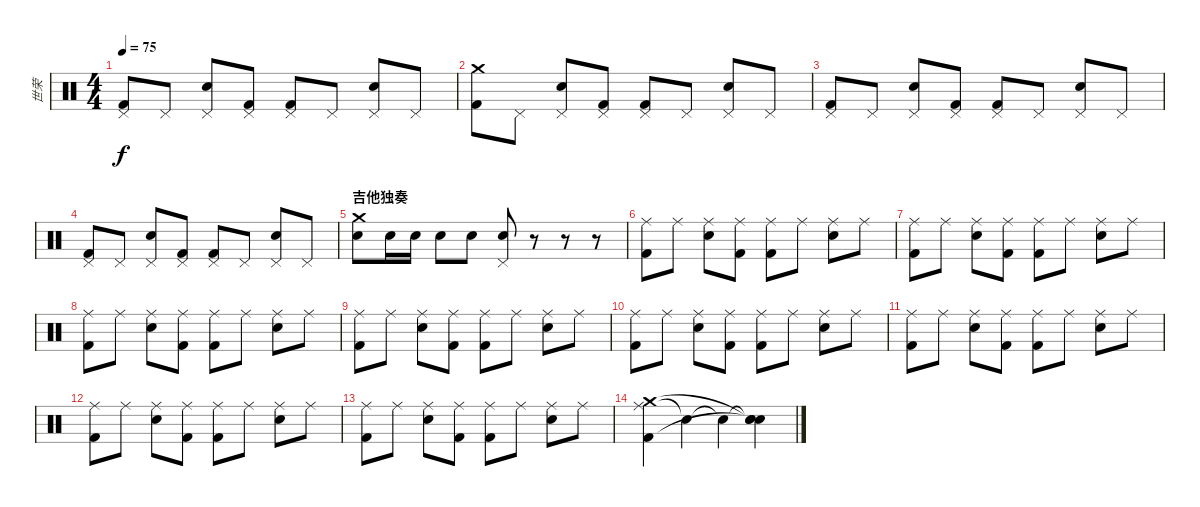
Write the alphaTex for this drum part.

\track ("世荣" "世荣") {instrument percussion}
\staff {score}
\articulation defaults
\ts (4 4)
\tempo 75
\clef neutral
\ks c
("Pedal Hi-Hat (hit)" "Kick (hit) 2").8{dy f} "Pedal Hi-Hat (hit)".8 ("Pedal Hi-Hat (hit)" "Electric Snare (hit)").8 ("Pedal Hi-Hat (hit)" "Kick (hit) 2").8 ("Pedal Hi-Hat (hit)" "Kick (hit) 2").8 "Pedal Hi-Hat (hit)".8 ("Pedal Hi-Hat (hit)" "Electric Snare (hit)").8 "Pedal Hi-Hat (hit)".8 |
("Crash medium (hit)" "Kick (hit) 2").8 "Pedal Hi-Hat (hit)".8 ("Pedal Hi-Hat (hit)" "Electric Snare (hit)").8 ("Pedal Hi-Hat (hit)" "Kick (hit) 2").8 ("Pedal Hi-Hat (hit)" "Kick (hit) 2").8 "Pedal Hi-Hat (hit)".8 ("Pedal Hi-Hat (hit)" "Electric Snare (hit)").8 "Pedal Hi-Hat (hit)".8 |
("Pedal Hi-Hat (hit)" "Kick (hit) 2").8 "Pedal Hi-Hat (hit)".8 ("Pedal Hi-Hat (hit)" "Electric Snare (hit)").8 ("Pedal Hi-Hat (hit)" "Kick (hit) 2").8 ("Pedal Hi-Hat (hit)" "Kick (hit) 2").8 "Pedal Hi-Hat (hit)".8 ("Pedal Hi-Hat (hit)" "Electric Snare (hit)").8 "Pedal Hi-Hat (hit)".8 |
("Pedal Hi-Hat (hit)" "Kick (hit) 2").8 "Pedal Hi-Hat (hit)".8 ("Pedal Hi-Hat (hit)" "Electric Snare (hit)").8 ("Pedal Hi-Hat (hit)" "Kick (hit) 2").8 ("Pedal Hi-Hat (hit)" "Kick (hit) 2").8 "Pedal Hi-Hat (hit)".8 ("Pedal Hi-Hat (hit)" "Electric Snare (hit)").8 "Pedal Hi-Hat (hit)".8 |
\section ("" "吉他独奏")
("Crash medium (hit)" "Electric Snare (hit)").8 "Electric Snare (hit)".16 "Electric Snare (hit)".16 "Electric Snare (hit)".8 "Electric Snare (hit)".8 ("Pedal Hi-Hat (hit)" "Electric Snare (hit)").8 r.8 r.8 r.8 |
("Ride (middle)" "Kick (hit) 2").8 "Ride (middle)".8 ("Ride (middle)" "Electric Snare (hit)").8 ("Ride (middle)" "Kick (hit) 2").8 ("Ride (middle)" "Kick (hit) 2").8 "Ride (middle)".8 ("Ride (middle)" "Electric Snare (hit)").8 "Ride (middle)".8 |
("Ride (middle)" "Kick (hit) 2").8 "Ride (middle)".8 ("Ride (middle)" "Electric Snare (hit)").8 ("Ride (middle)" "Kick (hit) 2").8 ("Ride (middle)" "Kick (hit) 2").8 "Ride (middle)".8 ("Ride (middle)" "Electric Snare (hit)").8 "Ride (middle)".8 |
("Ride (middle)" "Kick (hit) 2").8 "Ride (middle)".8 ("Ride (middle)" "Electric Snare (hit)").8 ("Ride (middle)" "Kick (hit) 2").8 ("Ride (middle)" "Kick (hit) 2").8 "Ride (middle)".8 ("Ride (middle)" "Electric Snare (hit)").8 "Ride (middle)".8 |
("Ride (middle)" "Kick (hit) 2").8 "Ride (middle)".8 ("Ride (middle)" "Electric Snare (hit)").8 ("Ride (middle)" "Kick (hit) 2").8 ("Ride (middle)" "Kick (hit) 2").8 "Ride (middle)".8 ("Ride (middle)" "Electric Snare (hit)").8 "Ride (middle)".8 |
("Ride (middle)" "Kick (hit) 2").8 "Ride (middle)".8 ("Ride (middle)" "Electric Snare (hit)").8 ("Ride (middle)" "Kick (hit) 2").8 ("Ride (middle)" "Kick (hit) 2").8 "Ride (middle)".8 ("Ride (middle)" "Electric Snare (hit)").8 "Ride (middle)".8 |
("Ride (middle)" "Kick (hit) 2").8 "Ride (middle)".8 ("Ride (middle)" "Electric Snare (hit)").8 ("Ride (middle)" "Kick (hit) 2").8 ("Ride (middle)" "Kick (hit) 2").8 "Ride (middle)".8 ("Ride (middle)" "Electric Snare (hit)").8 "Ride (middle)".8 |
("Ride (middle)" "Kick (hit) 2").8 "Ride (middle)".8 ("Ride (middle)" "Electric Snare (hit)").8 ("Ride (middle)" "Kick (hit) 2").8 ("Ride (middle)" "Kick (hit) 2").8 "Ride (middle)".8 ("Ride (middle)" "Electric Snare (hit)").8 "Ride (middle)".8 |
("Ride (middle)" "Kick (hit) 2").8 "Ride (middle)".8 ("Ride (middle)" "Electric Snare (hit)").8 ("Ride (middle)" "Kick (hit) 2").8 ("Ride (middle)" "Kick (hit) 2").8 "Ride (middle)".8 ("Ride (middle)" "Electric Snare (hit)").8 "Ride (middle)".8 |
("Ride (middle)" "Crash medium (hit)" "Kick (hit) 2").4 "Snare (hit)"{t}.4 "Snare (hit)"{t}.4 ("Snare (hit)"{t} "Snare (hit)"{t} "Snare (hit)"{t}).4
